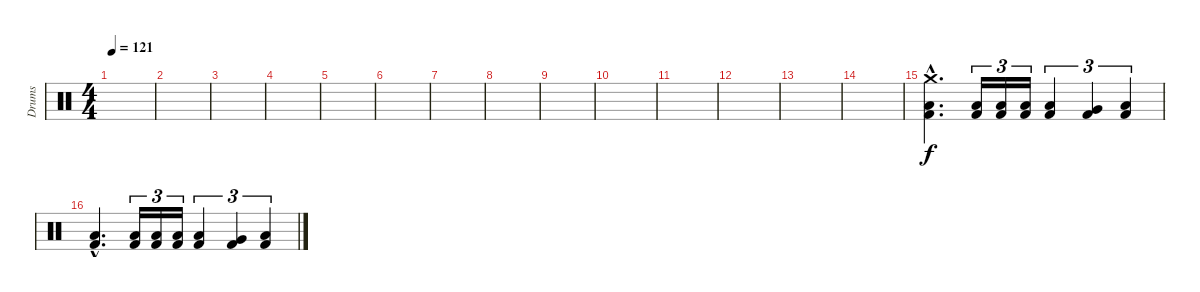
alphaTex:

\track ("Drums" "Drums") {instrument percussion}
\staff {score}
\articulation defaults
\ts (4 4)
\tempo 121
\clef neutral
\ks c
|
|
|
|
|
|
|
|
|
|
|
|
|
|
("Crash medium (hit)"{hac} "Low Floor Tom (hit)"{hac} "Kick (hit) 2"{hac}).4{d} ("Low Floor Tom (hit)" "Kick (hit) 2").16{tu (3 2)} ("Low Floor Tom (hit)" "Kick (hit) 2").16{tu (3 2)} ("Low Floor Tom (hit)" "Kick (hit) 2").16{tu (3 2)} ("Low Tom (hit)" "Kick (hit) 2").4{tu (3 2)} ("Very Low Tom (hit)" "Kick (hit) 2").4{tu (3 2)} ("Low Floor Tom (hit)" "Kick (hit) 2").4{tu (3 2)} |
("Low Floor Tom (hit)"{hac} "Kick (hit) 2"{hac}).4{d} ("Low Floor Tom (hit)" "Kick (hit) 2").16{tu (3 2)} ("Low Floor Tom (hit)" "Kick (hit) 2").16{tu (3 2)} ("Low Floor Tom (hit)" "Kick (hit) 2").16{tu (3 2)} ("Low Tom (hit)" "Kick (hit) 2").4{tu (3 2)} ("Very Low Tom (hit)" "Kick (hit) 2").4{tu (3 2)} ("Low Floor Tom (hit)" "Kick (hit) 2").4{tu (3 2)}
